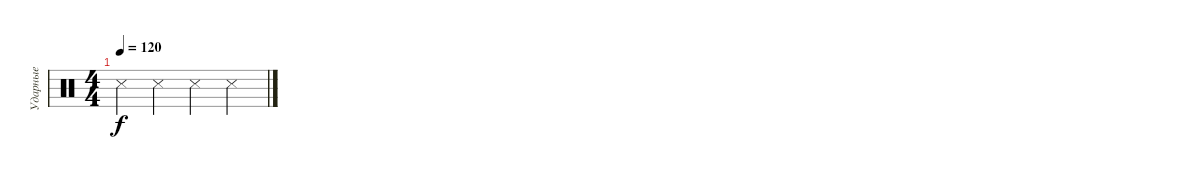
\track ("Ударные" "Ударные") {instrument percussion}
\staff {score}
\articulation defaults
\ts (4 4)
\tempo 120
\clef neutral
\ks c "Metronome (hit)".4{dy f volume 16} "Metronome (hit)".4 "Metronome (hit)".4 "Metronome (hit)".4
